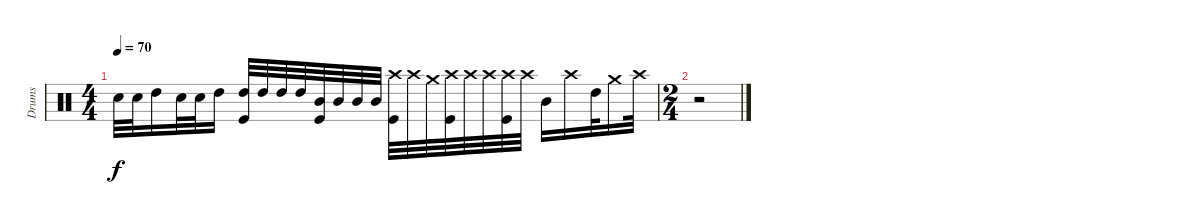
\track ("Drums" "Drums") {instrument percussion}
\staff {score}
\articulation defaults
\ts (4 4)
\tempo 70
\clef neutral
\ks c "Electric Snare (hit)".32{dy f} "Electric Snare (hit)".32 "High Tom (hit)".16 "Electric Snare (hit)".32 "Electric Snare (hit)".32 "High Tom (hit)".16
("High Tom (hit)" "Kick (hit)").32 "High Tom (hit)".32 "High Tom (hit)".32 "High Tom (hit)".32 ("Mid Tom (hit)" "Kick (hit)").32 "Mid Tom (hit)".32 "Mid Tom (hit)".32 "Mid Tom (hit)".32 ("Crash high (hit)" "Kick (hit)").32 "Crash high (hit)".32 "Crash medium (hit)".32 ("Crash high (hit)" "Kick (hit)").32 "Crash high (hit)".32 "Crash high (hit)".32 ("Crash high (hit)" "Kick (hit)").32 "Crash high (hit)".32 "Mid Tom (hit)".16 "Crash high (hit)".16 "High Tom (hit)".32 "Crash medium (hit)".16 "Crash high (hit)".32 |
\ts (2 4)
r.2
